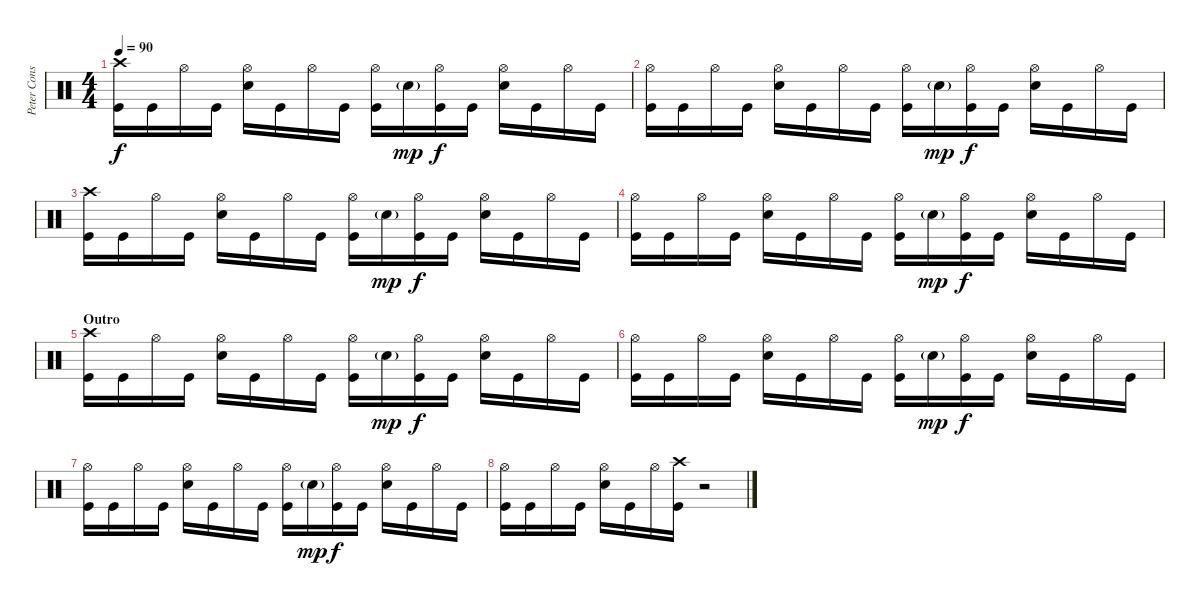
\track ("Peter Constantinou" "Peter Cons") {instrument percussion}
\staff {score}
\articulation defaults
\ts (4 4)
\tempo 90
\clef neutral
\ks c
("Crash high (hit)" "Kick (hit)").16{dy f} "Kick (hit)".16 "Hi-Hat (open)".16 "Kick (hit)".16 ("Hi-Hat (open)" "Snare (hit) 2").16 "Kick (hit)".16 "Hi-Hat (open)".16 "Kick (hit)".16 ("Hi-Hat (open)" "Kick (hit)").16 "Snare (hit) 2"{g}.16{dy mp} ("Hi-Hat (open)" "Kick (hit)").16{dy f} "Kick (hit)".16 ("Hi-Hat (open)" "Snare (hit) 2").16 "Kick (hit)".16 "Hi-Hat (open)".16 "Kick (hit)".16 |
("Hi-Hat (open)" "Kick (hit)").16 "Kick (hit)".16 "Hi-Hat (open)".16 "Kick (hit)".16 ("Hi-Hat (open)" "Snare (hit) 2").16 "Kick (hit)".16 "Hi-Hat (open)".16 "Kick (hit)".16 ("Hi-Hat (open)" "Kick (hit)").16 "Snare (hit) 2"{g}.16{dy mp} ("Hi-Hat (open)" "Kick (hit)").16{dy f} "Kick (hit)".16 ("Hi-Hat (open)" "Snare (hit) 2").16 "Kick (hit)".16 "Hi-Hat (open)".16 "Kick (hit)".16 |
("Crash high (hit)" "Kick (hit)").16 "Kick (hit)".16 "Hi-Hat (open)".16 "Kick (hit)".16 ("Hi-Hat (open)" "Snare (hit) 2").16 "Kick (hit)".16 "Hi-Hat (open)".16 "Kick (hit)".16 ("Hi-Hat (open)" "Kick (hit)").16 "Snare (hit) 2"{g}.16{dy mp} ("Hi-Hat (open)" "Kick (hit)").16{dy f} "Kick (hit)".16 ("Hi-Hat (open)" "Snare (hit) 2").16 "Kick (hit)".16 "Hi-Hat (open)".16 "Kick (hit)".16 |
("Hi-Hat (open)" "Kick (hit)").16 "Kick (hit)".16 "Hi-Hat (open)".16 "Kick (hit)".16 ("Hi-Hat (open)" "Snare (hit) 2").16 "Kick (hit)".16 "Hi-Hat (open)".16 "Kick (hit)".16 ("Hi-Hat (open)" "Kick (hit)").16 "Snare (hit) 2"{g}.16{dy mp} ("Hi-Hat (open)" "Kick (hit)").16{dy f} "Kick (hit)".16 ("Hi-Hat (open)" "Snare (hit) 2").16 "Kick (hit)".16 "Hi-Hat (open)".16 "Kick (hit)".16 |
\section ("" "Outro")
("Crash high (hit)" "Kick (hit)").16 "Kick (hit)".16 "Hi-Hat (open)".16 "Kick (hit)".16 ("Hi-Hat (open)" "Snare (hit) 2").16 "Kick (hit)".16 "Hi-Hat (open)".16 "Kick (hit)".16 ("Hi-Hat (open)" "Kick (hit)").16 "Snare (hit) 2"{g}.16{dy mp} ("Hi-Hat (open)" "Kick (hit)").16{dy f} "Kick (hit)".16 ("Hi-Hat (open)" "Snare (hit) 2").16 "Kick (hit)".16 "Hi-Hat (open)".16 "Kick (hit)".16 |
("Hi-Hat (open)" "Kick (hit)").16 "Kick (hit)".16 "Hi-Hat (open)".16 "Kick (hit)".16 ("Hi-Hat (open)" "Snare (hit) 2").16 "Kick (hit)".16 "Hi-Hat (open)".16 "Kick (hit)".16 ("Hi-Hat (open)" "Kick (hit)").16 "Snare (hit) 2"{g}.16{dy mp} ("Hi-Hat (open)" "Kick (hit)").16{dy f} "Kick (hit)".16 ("Hi-Hat (open)" "Snare (hit) 2").16 "Kick (hit)".16 "Hi-Hat (open)".16 "Kick (hit)".16 |
("Hi-Hat (open)" "Kick (hit)").16 "Kick (hit)".16 "Hi-Hat (open)".16 "Kick (hit)".16 ("Hi-Hat (open)" "Snare (hit) 2").16 "Kick (hit)".16 "Hi-Hat (open)".16 "Kick (hit)".16 ("Hi-Hat (open)" "Kick (hit)").16 "Snare (hit) 2"{g}.16{dy mp} ("Hi-Hat (open)" "Kick (hit)").16{dy f} "Kick (hit)".16 ("Hi-Hat (open)" "Snare (hit) 2").16 "Kick (hit)".16 "Hi-Hat (open)".16 "Kick (hit)".16 |
("Hi-Hat (open)" "Kick (hit)").16 "Kick (hit)".16 "Hi-Hat (open)".16 "Kick (hit)".16 ("Hi-Hat (open)" "Snare (hit) 2").16 "Kick (hit)".16 "Hi-Hat (open)".16 ("Crash high (hit)" "Kick (hit)").16 r.2
